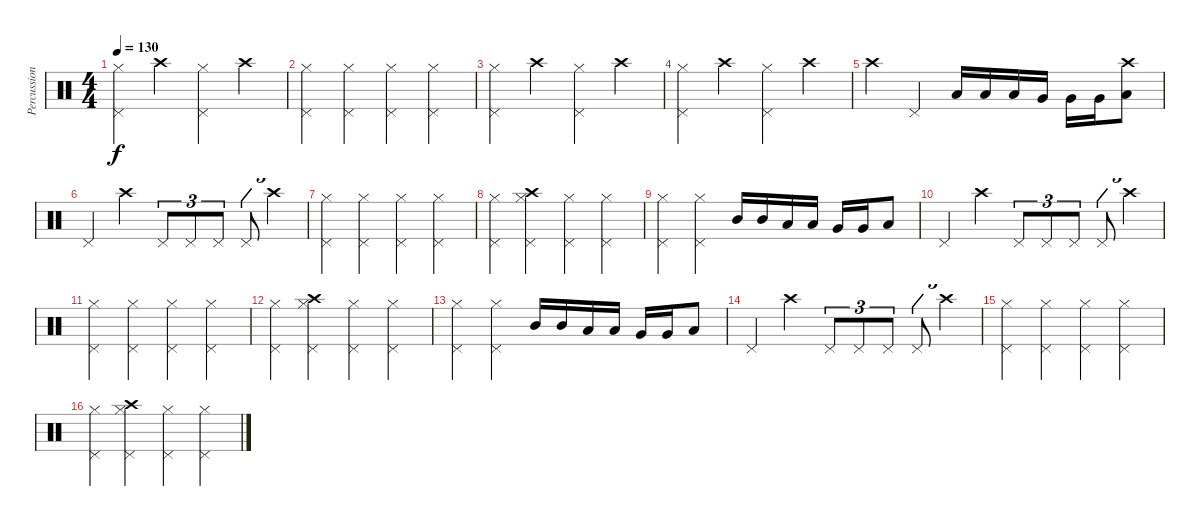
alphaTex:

\track ("Percussion" "Percussion") {instrument percussion}
\staff {score}
\articulation defaults
\ts (4 4)
\tempo 130
\clef neutral
\ks c
("Hi-Hat (closed)" "Pedal Hi-Hat (hit)").4{dy f} "Crash high (hit)".4 ("Hi-Hat (closed)" "Pedal Hi-Hat (hit)").4 "Crash high (hit)".4 |
("Hi-Hat (closed)" "Pedal Hi-Hat (hit)").4 ("Hi-Hat (closed)" "Pedal Hi-Hat (hit)").4 ("Hi-Hat (closed)" "Pedal Hi-Hat (hit)").4 ("Hi-Hat (closed)" "Pedal Hi-Hat (hit)").4 |
("Hi-Hat (closed)" "Pedal Hi-Hat (hit)").4 "Crash high (hit)".4 ("Hi-Hat (closed)" "Pedal Hi-Hat (hit)").4 "Crash high (hit)".4 |
("Hi-Hat (closed)" "Pedal Hi-Hat (hit)").4 "Crash high (hit)".4 ("Hi-Hat (closed)" "Pedal Hi-Hat (hit)").4 "Crash high (hit)".4 |
"Crash high (hit)".4 "Pedal Hi-Hat (hit)".4 "Low Tom (hit)".16 "Low Tom (hit)".16 "Low Tom (hit)".16 "Very Low Tom (hit)".16 "Very Low Tom (hit)".16 "Very Low Tom (hit)".16 ("Crash high (hit)" "Low Floor Tom (hit)").8 |
"Pedal Hi-Hat (hit)".4 "Crash high (hit)".4 "Pedal Hi-Hat (hit)".8{tu (3 2)} "Pedal Hi-Hat (hit)".8{tu (3 2)} "Pedal Hi-Hat (hit)".8{tu (3 2)} "Pedal Hi-Hat (hit)".8{tu (3 2)} "Crash high (hit)".4{tu (3 2)} |
("Pedal Hi-Hat (hit)" "Hi-Hat (closed)").4 ("Pedal Hi-Hat (hit)" "Hi-Hat (closed)").4 ("Pedal Hi-Hat (hit)" "Hi-Hat (closed)").4 ("Pedal Hi-Hat (hit)" "Hi-Hat (closed)").4 |
("Pedal Hi-Hat (hit)" "Hi-Hat (closed)").4 ("Crash high (hit)" "Pedal Hi-Hat (hit)" "Hi-Hat (closed)").4 ("Pedal Hi-Hat (hit)" "Hi-Hat (closed)").4 ("Pedal Hi-Hat (hit)" "Hi-Hat (closed)").4 |
("Pedal Hi-Hat (hit)" "Hi-Hat (closed)").4 ("Pedal Hi-Hat (hit)" "Hi-Hat (closed)").4 "Mid Tom (hit)".16 "Mid Tom (hit)".16 "Low Tom (hit)".16 "Low Tom (hit)".16 "Very Low Tom (hit)".16 "Very Low Tom (hit)".16 "Low Floor Tom (hit)".8 |
"Pedal Hi-Hat (hit)".4 "Crash high (hit)".4 "Pedal Hi-Hat (hit)".8{tu (3 2)} "Pedal Hi-Hat (hit)".8{tu (3 2)} "Pedal Hi-Hat (hit)".8{tu (3 2)} "Pedal Hi-Hat (hit)".8{tu (3 2)} "Crash high (hit)".4{tu (3 2)} |
("Pedal Hi-Hat (hit)" "Hi-Hat (closed)").4 ("Pedal Hi-Hat (hit)" "Hi-Hat (closed)").4 ("Pedal Hi-Hat (hit)" "Hi-Hat (closed)").4 ("Pedal Hi-Hat (hit)" "Hi-Hat (closed)").4 |
("Pedal Hi-Hat (hit)" "Hi-Hat (closed)").4 ("Crash high (hit)" "Pedal Hi-Hat (hit)" "Hi-Hat (closed)").4 ("Pedal Hi-Hat (hit)" "Hi-Hat (closed)").4 ("Pedal Hi-Hat (hit)" "Hi-Hat (closed)").4 |
("Pedal Hi-Hat (hit)" "Hi-Hat (closed)").4 ("Pedal Hi-Hat (hit)" "Hi-Hat (closed)").4 "Mid Tom (hit)".16 "Mid Tom (hit)".16 "Low Tom (hit)".16 "Low Tom (hit)".16 "Very Low Tom (hit)".16 "Very Low Tom (hit)".16 "Low Floor Tom (hit)".8 |
"Pedal Hi-Hat (hit)".4{volume 9} "Crash high (hit)".4 "Pedal Hi-Hat (hit)".8{tu (3 2)} "Pedal Hi-Hat (hit)".8{tu (3 2)} "Pedal Hi-Hat (hit)".8{tu (3 2)} "Pedal Hi-Hat (hit)".8{tu (3 2)} "Crash high (hit)".4{tu (3 2)} |
("Pedal Hi-Hat (hit)" "Hi-Hat (closed)").4 ("Pedal Hi-Hat (hit)" "Hi-Hat (closed)").4 ("Pedal Hi-Hat (hit)" "Hi-Hat (closed)").4 ("Pedal Hi-Hat (hit)" "Hi-Hat (closed)").4 |
("Pedal Hi-Hat (hit)" "Hi-Hat (closed)").4 ("Crash high (hit)" "Pedal Hi-Hat (hit)" "Hi-Hat (closed)").4 ("Pedal Hi-Hat (hit)" "Hi-Hat (closed)").4 ("Pedal Hi-Hat (hit)" "Hi-Hat (closed)").4
